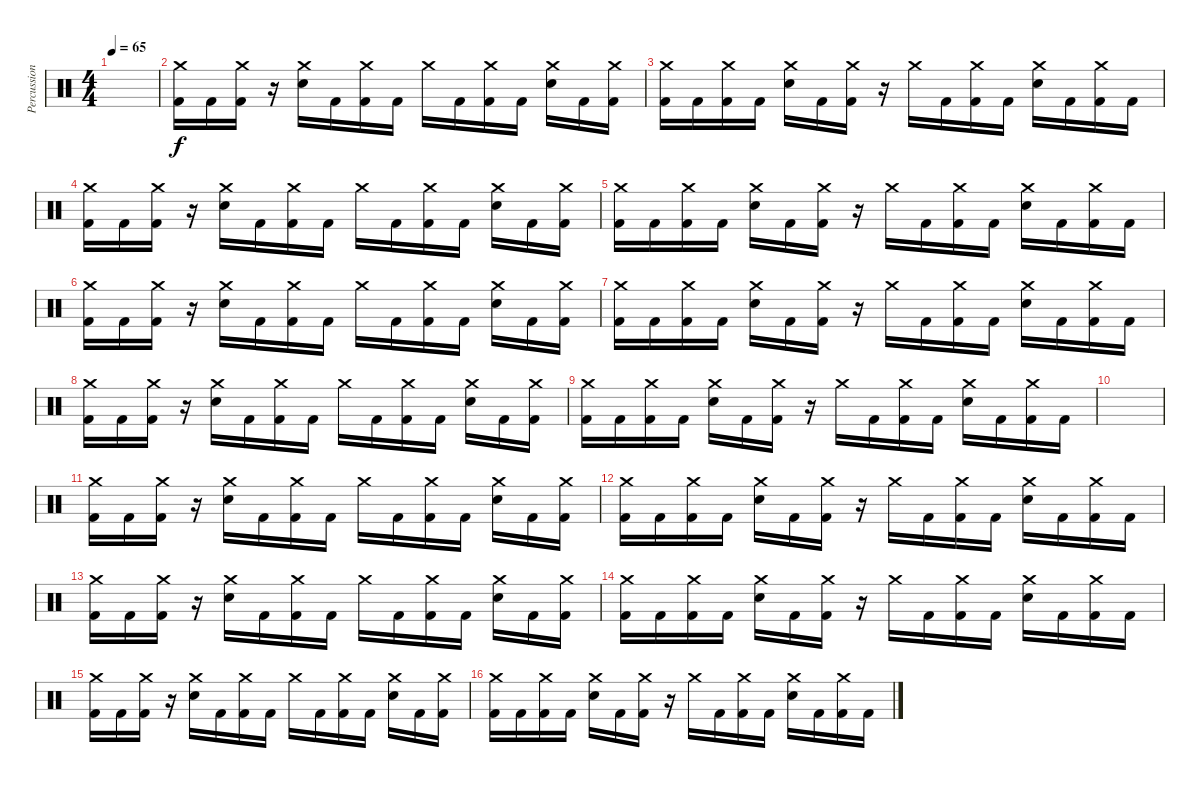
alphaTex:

\track ("Percussion" "Percussion") {instrument percussion}
\staff {score}
\articulation defaults
\ts (4 4)
\tempo 65
\clef neutral
\ks c
|
("Kick (hit) 2" "Crash medium (hit)").16 "Kick (hit) 2".16 ("Kick (hit) 2" "Crash medium (hit)").16 r.16 ("Snare (hit) 2" "Crash medium (hit)").16 "Kick (hit) 2".16 ("Kick (hit) 2" "Crash medium (hit)").16 "Kick (hit) 2".16 "Crash medium (hit)".16 "Kick (hit) 2".16 ("Kick (hit) 2" "Crash medium (hit)").16 "Kick (hit) 2".16 ("Snare (hit) 2" "Crash medium (hit)").16 "Kick (hit) 2".16 ("Kick (hit) 2" "Crash medium (hit)").16 |
("Kick (hit) 2" "Crash medium (hit)").16 "Kick (hit) 2".16 ("Kick (hit) 2" "Crash medium (hit)").16 "Kick (hit) 2".16 ("Snare (hit) 2" "Crash medium (hit)").16 "Kick (hit) 2".16 ("Kick (hit) 2" "Crash medium (hit)").16 r.16 "Crash medium (hit)".16 "Kick (hit) 2".16 ("Kick (hit) 2" "Crash medium (hit)").16 "Kick (hit) 2".16 ("Snare (hit) 2" "Crash medium (hit)").16 "Kick (hit) 2".16 ("Kick (hit) 2" "Crash medium (hit)").16 "Kick (hit) 2".16 |
("Kick (hit) 2" "Crash medium (hit)").16 "Kick (hit) 2".16 ("Kick (hit) 2" "Crash medium (hit)").16 r.16 ("Snare (hit) 2" "Crash medium (hit)").16 "Kick (hit) 2".16 ("Kick (hit) 2" "Crash medium (hit)").16 "Kick (hit) 2".16 "Crash medium (hit)".16 "Kick (hit) 2".16 ("Kick (hit) 2" "Crash medium (hit)").16 "Kick (hit) 2".16 ("Snare (hit) 2" "Crash medium (hit)").16 "Kick (hit) 2".16 ("Kick (hit) 2" "Crash medium (hit)").16 |
("Kick (hit) 2" "Crash medium (hit)").16 "Kick (hit) 2".16 ("Kick (hit) 2" "Crash medium (hit)").16 "Kick (hit) 2".16 ("Snare (hit) 2" "Crash medium (hit)").16 "Kick (hit) 2".16 ("Kick (hit) 2" "Crash medium (hit)").16 r.16 "Crash medium (hit)".16 "Kick (hit) 2".16 ("Kick (hit) 2" "Crash medium (hit)").16 "Kick (hit) 2".16 ("Snare (hit) 2" "Crash medium (hit)").16 "Kick (hit) 2".16 ("Kick (hit) 2" "Crash medium (hit)").16 "Kick (hit) 2".16 |
("Kick (hit) 2" "Crash medium (hit)").16 "Kick (hit) 2".16 ("Kick (hit) 2" "Crash medium (hit)").16 r.16 ("Snare (hit) 2" "Crash medium (hit)").16 "Kick (hit) 2".16 ("Kick (hit) 2" "Crash medium (hit)").16 "Kick (hit) 2".16 "Crash medium (hit)".16 "Kick (hit) 2".16 ("Kick (hit) 2" "Crash medium (hit)").16 "Kick (hit) 2".16 ("Snare (hit) 2" "Crash medium (hit)").16 "Kick (hit) 2".16 ("Kick (hit) 2" "Crash medium (hit)").16 |
("Kick (hit) 2" "Crash medium (hit)").16 "Kick (hit) 2".16 ("Kick (hit) 2" "Crash medium (hit)").16 "Kick (hit) 2".16 ("Snare (hit) 2" "Crash medium (hit)").16 "Kick (hit) 2".16 ("Kick (hit) 2" "Crash medium (hit)").16 r.16 "Crash medium (hit)".16 "Kick (hit) 2".16 ("Kick (hit) 2" "Crash medium (hit)").16 "Kick (hit) 2".16 ("Snare (hit) 2" "Crash medium (hit)").16 "Kick (hit) 2".16 ("Kick (hit) 2" "Crash medium (hit)").16 "Kick (hit) 2".16 |
("Kick (hit) 2" "Crash medium (hit)").16 "Kick (hit) 2".16 ("Kick (hit) 2" "Crash medium (hit)").16 r.16 ("Snare (hit) 2" "Crash medium (hit)").16 "Kick (hit) 2".16 ("Kick (hit) 2" "Crash medium (hit)").16 "Kick (hit) 2".16 "Crash medium (hit)".16 "Kick (hit) 2".16 ("Kick (hit) 2" "Crash medium (hit)").16 "Kick (hit) 2".16 ("Snare (hit) 2" "Crash medium (hit)").16 "Kick (hit) 2".16 ("Kick (hit) 2" "Crash medium (hit)").16 |
("Kick (hit) 2" "Crash medium (hit)").16 "Kick (hit) 2".16 ("Kick (hit) 2" "Crash medium (hit)").16 "Kick (hit) 2".16 ("Snare (hit) 2" "Crash medium (hit)").16 "Kick (hit) 2".16 ("Kick (hit) 2" "Crash medium (hit)").16 r.16 "Crash medium (hit)".16 "Kick (hit) 2".16 ("Kick (hit) 2" "Crash medium (hit)").16 "Kick (hit) 2".16 ("Snare (hit) 2" "Crash medium (hit)").16 "Kick (hit) 2".16 ("Kick (hit) 2" "Crash medium (hit)").16 "Kick (hit) 2".16 |
|
("Kick (hit) 2" "Crash medium (hit)").16 "Kick (hit) 2".16 ("Kick (hit) 2" "Crash medium (hit)").16 r.16 ("Snare (hit) 2" "Crash medium (hit)").16 "Kick (hit) 2".16 ("Kick (hit) 2" "Crash medium (hit)").16 "Kick (hit) 2".16 "Crash medium (hit)".16 "Kick (hit) 2".16 ("Kick (hit) 2" "Crash medium (hit)").16 "Kick (hit) 2".16 ("Snare (hit) 2" "Crash medium (hit)").16 "Kick (hit) 2".16 ("Kick (hit) 2" "Crash medium (hit)").16 |
("Kick (hit) 2" "Crash medium (hit)").16 "Kick (hit) 2".16 ("Kick (hit) 2" "Crash medium (hit)").16 "Kick (hit) 2".16 ("Snare (hit) 2" "Crash medium (hit)").16 "Kick (hit) 2".16 ("Kick (hit) 2" "Crash medium (hit)").16 r.16 "Crash medium (hit)".16 "Kick (hit) 2".16 ("Kick (hit) 2" "Crash medium (hit)").16 "Kick (hit) 2".16 ("Snare (hit) 2" "Crash medium (hit)").16 "Kick (hit) 2".16 ("Kick (hit) 2" "Crash medium (hit)").16 "Kick (hit) 2".16 |
("Kick (hit) 2" "Crash medium (hit)").16 "Kick (hit) 2".16 ("Kick (hit) 2" "Crash medium (hit)").16 r.16 ("Snare (hit) 2" "Crash medium (hit)").16 "Kick (hit) 2".16 ("Kick (hit) 2" "Crash medium (hit)").16 "Kick (hit) 2".16 "Crash medium (hit)".16 "Kick (hit) 2".16 ("Kick (hit) 2" "Crash medium (hit)").16 "Kick (hit) 2".16 ("Snare (hit) 2" "Crash medium (hit)").16 "Kick (hit) 2".16 ("Kick (hit) 2" "Crash medium (hit)").16 |
("Kick (hit) 2" "Crash medium (hit)").16 "Kick (hit) 2".16 ("Kick (hit) 2" "Crash medium (hit)").16 "Kick (hit) 2".16 ("Snare (hit) 2" "Crash medium (hit)").16 "Kick (hit) 2".16 ("Kick (hit) 2" "Crash medium (hit)").16 r.16 "Crash medium (hit)".16 "Kick (hit) 2".16 ("Kick (hit) 2" "Crash medium (hit)").16 "Kick (hit) 2".16 ("Snare (hit) 2" "Crash medium (hit)").16 "Kick (hit) 2".16 ("Kick (hit) 2" "Crash medium (hit)").16 "Kick (hit) 2".16 |
("Kick (hit) 2" "Crash medium (hit)").16 "Kick (hit) 2".16 ("Kick (hit) 2" "Crash medium (hit)").16 r.16 ("Snare (hit) 2" "Crash medium (hit)").16 "Kick (hit) 2".16 ("Kick (hit) 2" "Crash medium (hit)").16 "Kick (hit) 2".16 "Crash medium (hit)".16 "Kick (hit) 2".16 ("Kick (hit) 2" "Crash medium (hit)").16 "Kick (hit) 2".16 ("Snare (hit) 2" "Crash medium (hit)").16 "Kick (hit) 2".16 ("Kick (hit) 2" "Crash medium (hit)").16 |
("Kick (hit) 2" "Crash medium (hit)").16 "Kick (hit) 2".16 ("Kick (hit) 2" "Crash medium (hit)").16 "Kick (hit) 2".16 ("Snare (hit) 2" "Crash medium (hit)").16 "Kick (hit) 2".16 ("Kick (hit) 2" "Crash medium (hit)").16 r.16 "Crash medium (hit)".16 "Kick (hit) 2".16 ("Kick (hit) 2" "Crash medium (hit)").16 "Kick (hit) 2".16 ("Snare (hit) 2" "Crash medium (hit)").16 "Kick (hit) 2".16 ("Kick (hit) 2" "Crash medium (hit)").16 "Kick (hit) 2".16
